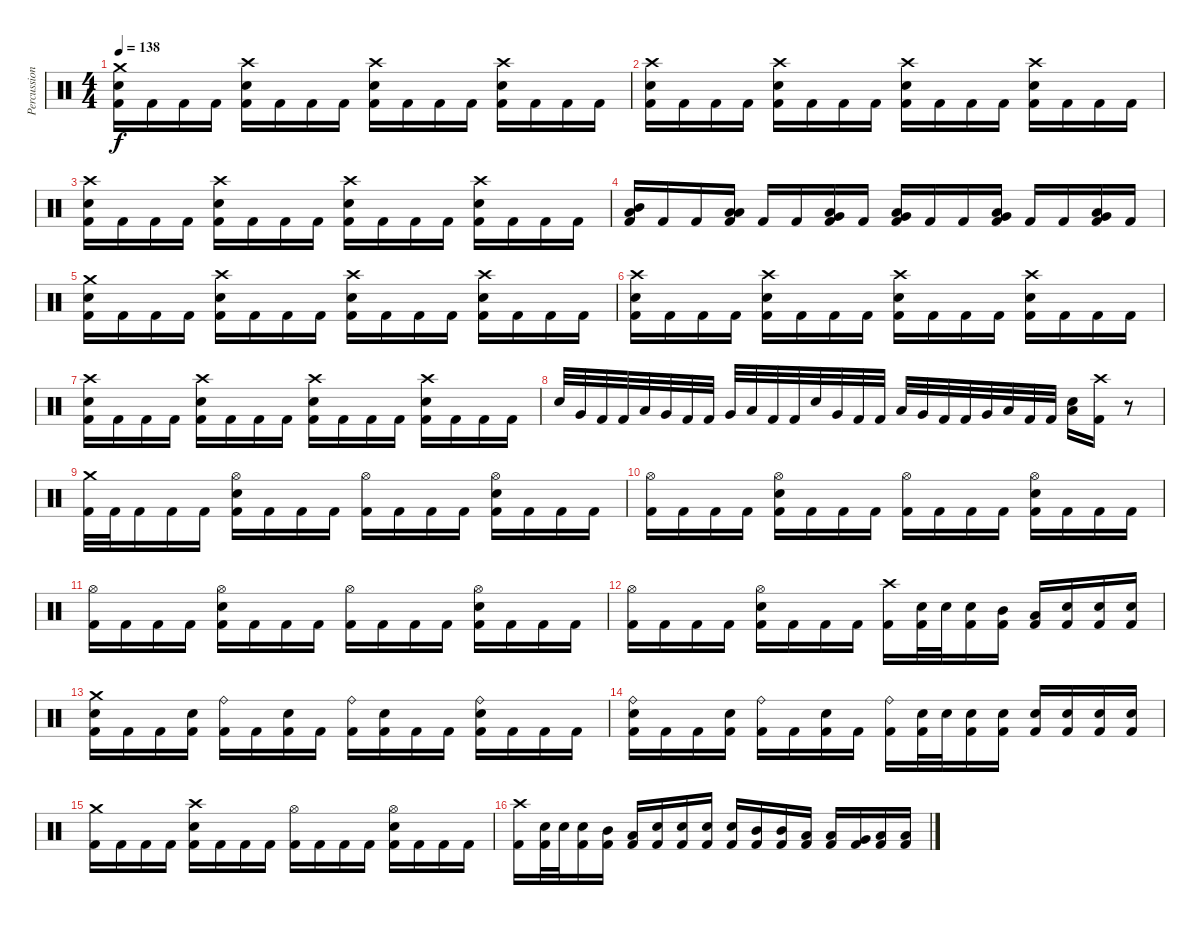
\track ("Percussion" "Percussion") {instrument percussion}
\staff {score}
\articulation defaults
\ts (4 4)
\tempo 138
\clef neutral
\ks c
("Crash medium (hit)" "Electric Snare (hit)" "Kick (hit) 2").16{dy f} "Kick (hit) 2".16 "Kick (hit) 2".16 "Kick (hit) 2".16 ("Crash high (hit)" "Electric Snare (hit)" "Kick (hit) 2").16 "Kick (hit) 2".16 "Kick (hit) 2".16 "Kick (hit) 2".16 ("Crash high (hit)" "Electric Snare (hit)" "Kick (hit) 2").16 "Kick (hit) 2".16 "Kick (hit) 2".16 "Kick (hit) 2".16 ("Crash high (hit)" "Electric Snare (hit)" "Kick (hit) 2").16 "Kick (hit) 2".16 "Kick (hit) 2".16 "Kick (hit) 2".16 |
("Crash high (hit)" "Electric Snare (hit)" "Kick (hit) 2").16 "Kick (hit) 2".16 "Kick (hit) 2".16 "Kick (hit) 2".16 ("Crash high (hit)" "Electric Snare (hit)" "Kick (hit) 2").16 "Kick (hit) 2".16 "Kick (hit) 2".16 "Kick (hit) 2".16 ("Crash high (hit)" "Electric Snare (hit)" "Kick (hit) 2").16 "Kick (hit) 2".16 "Kick (hit) 2".16 "Kick (hit) 2".16 ("Crash high (hit)" "Electric Snare (hit)" "Kick (hit) 2").16 "Kick (hit) 2".16 "Kick (hit) 2".16 "Kick (hit) 2".16 |
("Crash high (hit)" "Electric Snare (hit)" "Kick (hit) 2").16 "Kick (hit) 2".16 "Kick (hit) 2".16 "Kick (hit) 2".16 ("Crash high (hit)" "Electric Snare (hit)" "Kick (hit) 2").16 "Kick (hit) 2".16 "Kick (hit) 2".16 "Kick (hit) 2".16 ("Crash high (hit)" "Electric Snare (hit)" "Kick (hit) 2").16 "Kick (hit) 2".16 "Kick (hit) 2".16 "Kick (hit) 2".16 ("Crash high (hit)" "Electric Snare (hit)" "Kick (hit) 2").16 "Kick (hit) 2".16 "Kick (hit) 2".16 "Kick (hit) 2".16 |
("Mid Tom (hit)" "Low Floor Tom (hit)" "Kick (hit) 2").16 "Kick (hit) 2".16 "Kick (hit) 2".16 ("Low Tom (hit)" "Low Floor Tom (hit)" "Kick (hit) 2").16 "Kick (hit) 2".16 "Kick (hit) 2".16 ("Very Low Tom (hit)" "Low Floor Tom (hit)" "Kick (hit) 2").16 "Kick (hit) 2".16 ("Very Low Tom (hit)" "Low Floor Tom (hit)" "Kick (hit) 2").16 "Kick (hit) 2".16 "Kick (hit) 2".16 ("Very Low Tom (hit)" "Low Floor Tom (hit)" "Kick (hit) 2").16 "Kick (hit) 2".16 "Kick (hit) 2".16 ("Very Low Tom (hit)" "Low Floor Tom (hit)" "Kick (hit) 2").16 "Kick (hit) 2".16 |
("Crash medium (hit)" "Electric Snare (hit)" "Kick (hit) 2").16 "Kick (hit) 2".16 "Kick (hit) 2".16 "Kick (hit) 2".16 ("Crash high (hit)" "Electric Snare (hit)" "Kick (hit) 2").16 "Kick (hit) 2".16 "Kick (hit) 2".16 "Kick (hit) 2".16 ("Crash high (hit)" "Electric Snare (hit)" "Kick (hit) 2").16 "Kick (hit) 2".16 "Kick (hit) 2".16 "Kick (hit) 2".16 ("Crash high (hit)" "Electric Snare (hit)" "Kick (hit) 2").16 "Kick (hit) 2".16 "Kick (hit) 2".16 "Kick (hit) 2".16 |
("Crash high (hit)" "Electric Snare (hit)" "Kick (hit) 2").16 "Kick (hit) 2".16 "Kick (hit) 2".16 "Kick (hit) 2".16 ("Crash high (hit)" "Electric Snare (hit)" "Kick (hit) 2").16 "Kick (hit) 2".16 "Kick (hit) 2".16 "Kick (hit) 2".16 ("Crash high (hit)" "Electric Snare (hit)" "Kick (hit) 2").16 "Kick (hit) 2".16 "Kick (hit) 2".16 "Kick (hit) 2".16 ("Crash high (hit)" "Electric Snare (hit)" "Kick (hit) 2").16 "Kick (hit) 2".16 "Kick (hit) 2".16 "Kick (hit) 2".16 |
("Crash high (hit)" "Electric Snare (hit)" "Kick (hit) 2").16 "Kick (hit) 2".16 "Kick (hit) 2".16 "Kick (hit) 2".16 ("Crash high (hit)" "Electric Snare (hit)" "Kick (hit) 2").16 "Kick (hit) 2".16 "Kick (hit) 2".16 "Kick (hit) 2".16 ("Crash high (hit)" "Electric Snare (hit)" "Kick (hit) 2").16 "Kick (hit) 2".16 "Kick (hit) 2".16 "Kick (hit) 2".16 ("Crash high (hit)" "Electric Snare (hit)" "Kick (hit) 2").16 "Kick (hit) 2".16 "Kick (hit) 2".16 "Kick (hit) 2".16 |
"Electric Snare (hit)".32 "Very Low Tom (hit)".32 "Kick (hit) 2".32 "Kick (hit) 2".32 "Low Tom (hit)".32 "Very Low Tom (hit)".32 "Kick (hit) 2".32 "Kick (hit) 2".32 "Very Low Tom (hit)".32 "Low Floor Tom (hit)".32 "Kick (hit) 2".32 "Kick (hit) 2".32 "Electric Snare (hit)".32 "Very Low Tom (hit)".32 "Kick (hit) 2".32 "Kick (hit) 2".32 "Low Tom (hit)".32 "Very Low Tom (hit)".32 "Kick (hit) 2".32 "Kick (hit) 2".32 "Very Low Tom (hit)".32 "Low Floor Tom (hit)".32 "Kick (hit) 2".32 "Kick (hit) 2".32 ("Electric Snare (hit)" "Low Floor Tom (hit)").16 ("Crash high (hit)" "Kick (hit) 2").16 r.8 |
("Crash medium (hit)" "Kick (hit) 2").32 "Kick (hit) 2".32 "Kick (hit) 2".16 "Kick (hit) 2".16 "Kick (hit) 2".16 ("Hi-Hat (open)" "Electric Snare (hit)" "Kick (hit) 2").16 "Kick (hit) 2".16 "Kick (hit) 2".16 "Kick (hit) 2".16 ("Hi-Hat (open)" "Kick (hit) 2").16 "Kick (hit) 2".16 "Kick (hit) 2".16 "Kick (hit) 2".16 ("Hi-Hat (open)" "Electric Snare (hit)" "Kick (hit) 2").16 "Kick (hit) 2".16 "Kick (hit) 2".16 "Kick (hit) 2".16 |
("Hi-Hat (open)" "Kick (hit) 2").16 "Kick (hit) 2".16 "Kick (hit) 2".16 "Kick (hit) 2".16 ("Hi-Hat (open)" "Electric Snare (hit)" "Kick (hit) 2").16 "Kick (hit) 2".16 "Kick (hit) 2".16 "Kick (hit) 2".16 ("Hi-Hat (open)" "Kick (hit) 2").16 "Kick (hit) 2".16 "Kick (hit) 2".16 "Kick (hit) 2".16 ("Hi-Hat (open)" "Electric Snare (hit)" "Kick (hit) 2").16 "Kick (hit) 2".16 "Kick (hit) 2".16 "Kick (hit) 2".16 |
("Hi-Hat (open)" "Kick (hit) 2").16 "Kick (hit) 2".16 "Kick (hit) 2".16 "Kick (hit) 2".16 ("Hi-Hat (open)" "Electric Snare (hit)" "Kick (hit) 2").16 "Kick (hit) 2".16 "Kick (hit) 2".16 "Kick (hit) 2".16 ("Hi-Hat (open)" "Kick (hit) 2").16 "Kick (hit) 2".16 "Kick (hit) 2".16 "Kick (hit) 2".16 ("Hi-Hat (open)" "Electric Snare (hit)" "Kick (hit) 2").16 "Kick (hit) 2".16 "Kick (hit) 2".16 "Kick (hit) 2".16 |
("Hi-Hat (open)" "Kick (hit) 2").16 "Kick (hit) 2".16 "Kick (hit) 2".16 "Kick (hit) 2".16 ("Hi-Hat (open)" "Electric Snare (hit)" "Kick (hit) 2").16 "Kick (hit) 2".16 "Kick (hit) 2".16 "Kick (hit) 2".16 ("Crash high (hit)" "Kick (hit) 2").16 ("Electric Snare (hit)" "Kick (hit) 2").32 "Electric Snare (hit)".32 ("Electric Snare (hit)" "Kick (hit) 2").16 ("Mid Tom (hit)" "Kick (hit) 2").16 ("Low Tom (hit)" "Kick (hit) 2").16 ("Electric Snare (hit)" "Kick (hit) 2").16 ("Electric Snare (hit)" "Kick (hit) 2").16 ("Electric Snare (hit)" "Kick (hit) 2").16 |
("Crash medium (hit)" "Electric Snare (hit)" "Kick (hit) 2").16 "Kick (hit) 2".16 "Kick (hit) 2".16 ("Electric Snare (hit)" "Kick (hit) 2").16 ("Ride (bell)" "Kick (hit) 2").16 "Kick (hit) 2".16 ("Electric Snare (hit)" "Kick (hit) 2").16 "Kick (hit) 2".16 ("Ride (bell)" "Kick (hit) 2").16 ("Electric Snare (hit)" "Kick (hit) 2").16 "Kick (hit) 2".16 "Kick (hit) 2".16 ("Ride (bell)" "Electric Snare (hit)" "Kick (hit) 2").16 "Kick (hit) 2".16 "Kick (hit) 2".16 "Kick (hit) 2".16 |
("Ride (bell)" "Electric Snare (hit)" "Kick (hit) 2").16 "Kick (hit) 2".16 "Kick (hit) 2".16 ("Electric Snare (hit)" "Kick (hit) 2").16 ("Ride (bell)" "Kick (hit) 2").16 "Kick (hit) 2".16 ("Electric Snare (hit)" "Kick (hit) 2").16 "Kick (hit) 2".16 ("Ride (bell)" "Kick (hit) 2").16 ("Electric Snare (hit)" "Kick (hit) 2").32 "Electric Snare (hit)".32 ("Electric Snare (hit)" "Kick (hit) 2").16 ("Electric Snare (hit)" "Kick (hit) 2").16 ("Electric Snare (hit)" "Kick (hit) 2").16 ("Electric Snare (hit)" "Kick (hit) 2").16 ("Electric Snare (hit)" "Kick (hit) 2").16 ("Electric Snare (hit)" "Kick (hit) 2").16 |
("Crash medium (hit)" "Kick (hit) 2").16 "Kick (hit) 2".16 "Kick (hit) 2".16 "Kick (hit) 2".16 ("Crash high (hit)" "Electric Snare (hit)" "Kick (hit) 2").16 "Kick (hit) 2".16 "Kick (hit) 2".16 "Kick (hit) 2".16 ("Hi-Hat (open)" "Kick (hit) 2").16 "Kick (hit) 2".16 "Kick (hit) 2".16 "Kick (hit) 2".16 ("Hi-Hat (open)" "Electric Snare (hit)" "Kick (hit) 2").16 "Kick (hit) 2".16 "Kick (hit) 2".16 "Kick (hit) 2".16 |
("Crash high (hit)" "Kick (hit) 2").16 ("Electric Snare (hit)" "Kick (hit) 2").32 "Electric Snare (hit)".32 ("Electric Snare (hit)" "Kick (hit) 2").16 ("Mid Tom (hit)" "Kick (hit) 2").16 ("Low Tom (hit)" "Kick (hit) 2").16 ("Electric Snare (hit)" "Kick (hit) 2").16 ("Electric Snare (hit)" "Kick (hit) 2").16 ("Electric Snare (hit)" "Kick (hit) 2").16 ("Electric Snare (hit)" "Kick (hit) 2").16 ("Mid Tom (hit)" "Kick (hit) 2").16 ("Mid Tom (hit)" "Kick (hit) 2").16 ("Low Tom (hit)" "Kick (hit) 2").16 ("Low Tom (hit)" "Kick (hit) 2").16 ("Very Low Tom (hit)" "Kick (hit) 2").16 ("Low Floor Tom (hit)" "Kick (hit) 2").16 ("Low Floor Tom (hit)" "Kick (hit) 2").16
